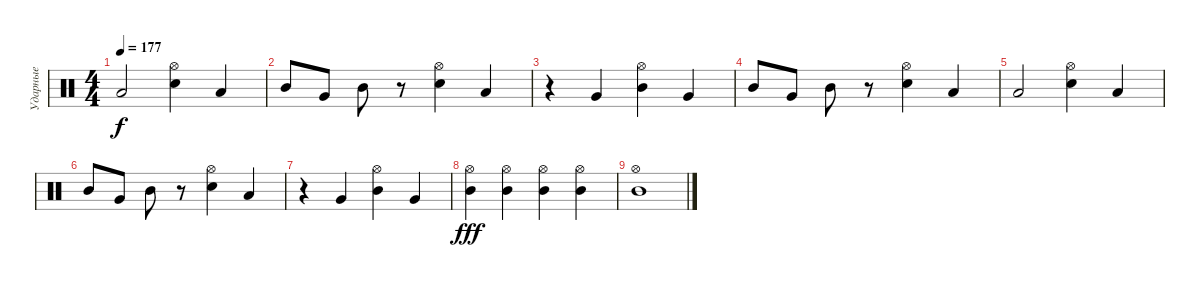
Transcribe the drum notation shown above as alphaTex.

\track ("Ударные" "Ударные") {instrument percussion}
\staff {score}
\articulation defaults
\ts (4 4)
\tempo 177
\clef neutral
\ks c "Low Tom (hit)".2{dy f}
("Hi-Hat (open)" "Electric Snare (hit)").4 "Low Tom (hit)".4 |
"Mid Tom (hit)".8 "Very Low Tom (hit)".8 "Mid Tom (hit)".8 r.8 ("Hi-Hat (open)" "Electric Snare (hit)").4 "Low Tom (hit)".4 |
r.4 "Very Low Tom (hit)".4 ("Hi-Hat (open)" "Mid Tom (hit)").4 "Very Low Tom (hit)".4 |
"Mid Tom (hit)".8 "Very Low Tom (hit)".8 "Mid Tom (hit)".8 r.8 ("Hi-Hat (open)" "Electric Snare (hit)").4 "Low Tom (hit)".4 |
"Low Tom (hit)".2 ("Hi-Hat (open)" "Electric Snare (hit)").4 "Low Tom (hit)".4 |
"Mid Tom (hit)".8 "Very Low Tom (hit)".8 "Mid Tom (hit)".8 r.8 ("Hi-Hat (open)" "Electric Snare (hit)").4 "Low Tom (hit)".4 |
r.4 "Very Low Tom (hit)".4 ("Hi-Hat (open)" "Mid Tom (hit)").4 "Very Low Tom (hit)".4 |
("Mid Tom (hit)" "Hi-Hat (open)").4{dy fff} ("Mid Tom (hit)" "Hi-Hat (open)").4 ("Mid Tom (hit)" "Hi-Hat (open)").4 ("Mid Tom (hit)" "Hi-Hat (open)").4 |
("Mid Tom (hit)" "Hi-Hat (open)").1
